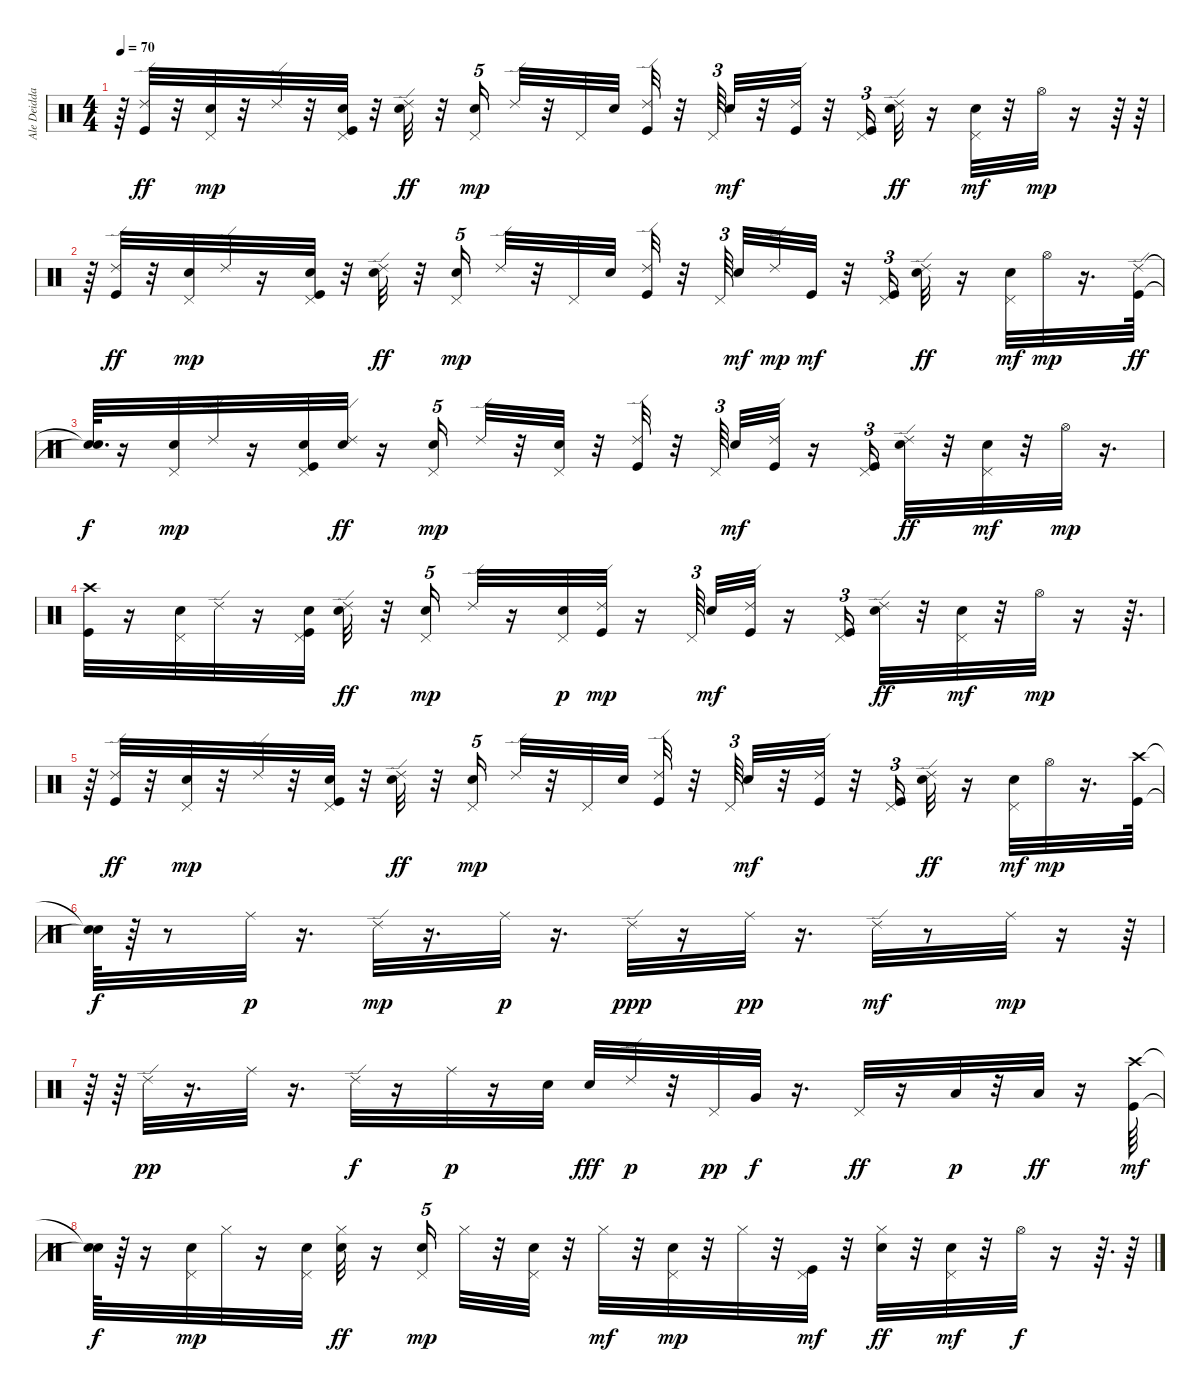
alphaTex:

\track ("Ale Deidda" "Ale Deidda") {instrument percussion}
\staff {score}
\articulation defaults
\ts (4 4)
\tempo 70
\clef neutral
\ks c
r.64{dy mp} ("Kick (hit)" "Ride (edge) 2").32{dy ff} r.32 ("Snare (hit) 2" "Pedal Hi-Hat (hit)").32{dy mp} r.32 "Ride (edge) 2".32 r.32 ("Snare (hit) 2" "Pedal Hi-Hat (hit)" "Kick (hit)").32 r.32 ("Ride (edge) 2" "Electric Snare (hit)").32{dy ff} r.32 ("Snare (hit) 2" "Pedal Hi-Hat (hit)").16{tu (5 4) dy mp} "Ride (edge) 2".32 r.32 "Pedal Hi-Hat (hit)".32 "Snare (hit) 2".32 ("Ride (edge) 2" "Kick (hit)").32 r.32 "Pedal Hi-Hat (hit)".64{tu (3 2)} "Snare (hit) 2".32{dy mf} r.32 ("Ride (edge) 2" "Kick (hit)").32 r.32 ("Pedal Hi-Hat (hit)" "Kick (hit)").16{tu (3 2)} ("Electric Snare (hit)" "Ride (edge) 2").32{dy ff} r.16 ("Snare (hit) 2" "Pedal Hi-Hat (hit)").32{dy mf} r.32 "Hi-Hat (open)".32{dy mp} r.16 r.64 r.64 |
r.64 ("Kick (hit)" "Ride (edge) 2").32{dy ff} r.32 ("Snare (hit) 2" "Pedal Hi-Hat (hit)").32{dy mp} "Ride (edge) 2".32 r.16 ("Snare (hit) 2" "Pedal Hi-Hat (hit)" "Kick (hit)").32 r.32 ("Ride (edge) 2" "Electric Snare (hit)").32{dy ff} r.32 ("Snare (hit) 2" "Pedal Hi-Hat (hit)").16{tu (5 4) dy mp} "Ride (edge) 2".32 r.32 "Pedal Hi-Hat (hit)".32 "Snare (hit) 2".32 ("Ride (edge) 2" "Kick (hit)").32 r.32 "Pedal Hi-Hat (hit)".64{tu (3 2) beam splitsecondary} "Snare (hit) 2".32{dy mf} "Ride (edge) 2".32{dy mp} "Kick (hit)".32{dy mf} r.32 ("Pedal Hi-Hat (hit)" "Kick (hit)").16{tu (3 2)} ("Electric Snare (hit)" "Ride (edge) 2").32{dy ff} r.16 ("Snare (hit) 2" "Pedal Hi-Hat (hit)").32{dy mf} "Hi-Hat (open)".32{dy mp} r.16{d} ("Kick (hit)" "Ride (edge) 2").64{dy ff} |
("Snare (hit)"{t} "Snare (hit)"{t}).64{d dy f} r.16 ("Snare (hit) 2" "Pedal Hi-Hat (hit)").32{dy mp} "Ride (edge) 2".32 r.16 ("Snare (hit) 2" "Pedal Hi-Hat (hit)" "Kick (hit)").32 ("Ride (edge) 2" "Electric Snare (hit)").32{dy ff} r.16 ("Snare (hit) 2" "Pedal Hi-Hat (hit)").16{tu (5 4) dy mp} "Ride (edge) 2".32 r.32 ("Pedal Hi-Hat (hit)" "Snare (hit) 2").32 r.32 ("Ride (edge) 2" "Kick (hit)").32 r.32 "Pedal Hi-Hat (hit)".64{tu (3 2) beam splitsecondary} "Snare (hit) 2".32{dy mf} ("Ride (edge) 2" "Kick (hit)").32 r.16 ("Pedal Hi-Hat (hit)" "Kick (hit)").16{tu (3 2)} ("Electric Snare (hit)" "Ride (edge) 2").32{dy ff} r.32 ("Snare (hit) 2" "Pedal Hi-Hat (hit)").32{dy mf} r.32 "Hi-Hat (open)".32{dy mp} r.16{d} |
("Kick (hit)" "Crash high (hit)").32 r.16 ("Snare (hit) 2" "Pedal Hi-Hat (hit)").32 "Ride (edge) 2".32 r.16 ("Snare (hit) 2" "Pedal Hi-Hat (hit)" "Kick (hit)").32 ("Ride (edge) 2" "Electric Snare (hit)").32{dy ff} r.32 ("Snare (hit) 2" "Pedal Hi-Hat (hit)").16{tu (5 4) dy mp} "Ride (edge) 2".32 r.16 ("Pedal Hi-Hat (hit)" "Snare (hit) 2").32{dy p} ("Ride (edge) 2" "Kick (hit)").32{dy mp} r.16 "Pedal Hi-Hat (hit)".64{tu (3 2) beam splitsecondary} "Snare (hit) 2".32{dy mf} ("Ride (edge) 2" "Kick (hit)").32 r.16 ("Pedal Hi-Hat (hit)" "Kick (hit)").16{tu (3 2)} ("Electric Snare (hit)" "Ride (edge) 2").32{dy ff} r.32 ("Snare (hit) 2" "Pedal Hi-Hat (hit)").32{dy mf} r.32 "Hi-Hat (open)".32{dy mp} r.16 r.64{d} |
r.64 ("Kick (hit)" "Ride (edge) 2").32{dy ff} r.32 ("Snare (hit) 2" "Pedal Hi-Hat (hit)").32{dy mp} r.32 "Ride (edge) 2".32 r.32 ("Snare (hit) 2" "Pedal Hi-Hat (hit)" "Kick (hit)").32 r.32 ("Ride (edge) 2" "Electric Snare (hit)").32{dy ff} r.32 ("Snare (hit) 2" "Pedal Hi-Hat (hit)").16{tu (5 4) dy mp} "Ride (edge) 2".32 r.32 "Pedal Hi-Hat (hit)".32 "Snare (hit) 2".32 ("Ride (edge) 2" "Kick (hit)").32 r.32 "Pedal Hi-Hat (hit)".64{tu (3 2)} "Snare (hit) 2".32{dy mf} r.32 ("Ride (edge) 2" "Kick (hit)").32 r.32 ("Pedal Hi-Hat (hit)" "Kick (hit)").16{tu (3 2)} ("Electric Snare (hit)" "Ride (edge) 2").32{dy ff} r.16 ("Snare (hit) 2" "Pedal Hi-Hat (hit)").32{dy mf} "Hi-Hat (open)".32{dy mp} r.16{d} ("Kick (hit)" "Crash high (hit)").64 |
("Snare (hit)"{t} "Snare (hit)"{t}).64{dy f} r.64 r.8 "Ride (middle)".32{dy p} r.16{d} "Ride (edge) 2".32{dy mp} r.16{d} "Ride (middle)".32{dy p} r.16{d} "Ride (edge) 2".32{dy ppp} r.16 "Ride (middle)".32{dy pp} r.16{d} "Ride (edge) 2".32{dy mf} r.8 "Ride (middle)".32{dy mp} r.16 r.64 |
r.64 r.64 "Ride (edge) 2".32{dy pp} r.16{d} "Ride (middle)".32 r.16{d} "Ride (edge) 2".32{dy f} r.16 "Ride (middle)".32{dy p} r.16 "Electric Snare (hit)".32 "Electric Snare (hit)".32{dy fff} "Ride (edge) 2".32{dy p} r.32 "Pedal Hi-Hat (hit)".32{dy pp} "Very Low Tom (hit)".32{dy f} r.16{d} "Pedal Hi-Hat (hit)".32{dy ff} r.16 "Low Floor Tom (hit)".32{dy p} r.32 "Low Floor Tom (hit)".32{dy ff} r.16 ("Kick (hit)" "Crash high (hit)").64{dy mf} |
("Snare (hit)"{t} "Snare (hit)"{t}).64{dy f} r.64 r.16 ("Snare (hit) 2" "Pedal Hi-Hat (hit)").32{dy mp} "Hi-Hat (closed)".32 r.16 ("Snare (hit) 2" "Pedal Hi-Hat (hit)").32 ("Electric Snare (hit)" "Hi-Hat (closed)").32{dy ff} r.16 ("Snare (hit) 2" "Pedal Hi-Hat (hit)").16{tu (5 4) dy mp} "Hi-Hat (closed)".32 r.32 ("Snare (hit) 2" "Pedal Hi-Hat (hit)").32 r.32 "Hi-Hat (closed)".32{dy mf} r.32 ("Snare (hit) 2" "Pedal Hi-Hat (hit)").32{dy mp} r.32 "Hi-Hat (closed)".32 r.32 ("Pedal Hi-Hat (hit)" "Kick (hit)").32{dy mf} r.32 ("Hi-Hat (closed)" "Electric Snare (hit)").32{dy ff} r.32 ("Snare (hit) 2" "Pedal Hi-Hat (hit)").32{dy mf} r.32 "Hi-Hat (open)".32{dy f} r.16 r.64{d} r.64
